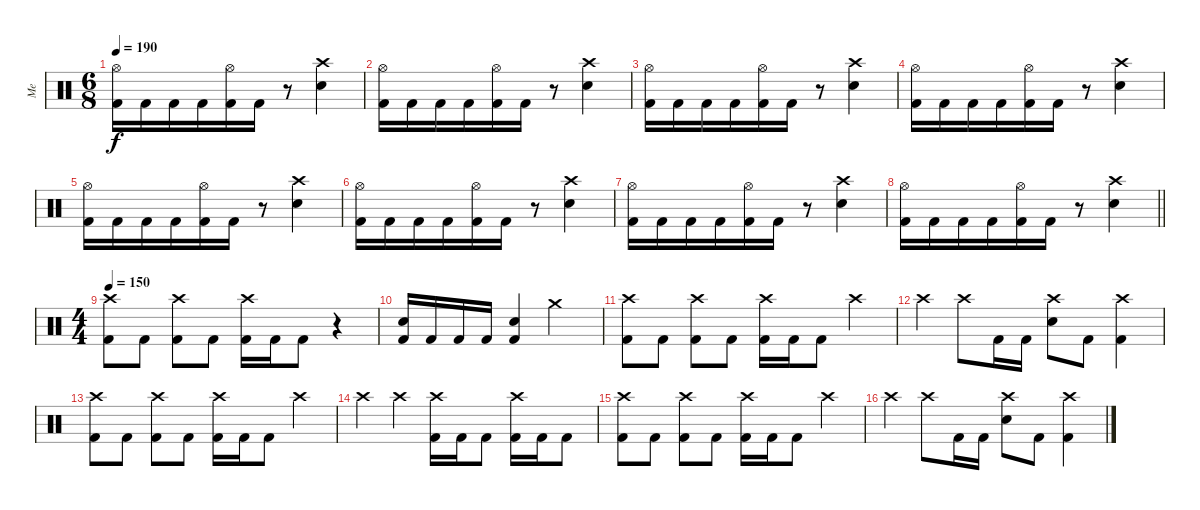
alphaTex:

\track ("Me" "Me") {instrument percussion}
\staff {score}
\articulation defaults
\ts (6 8)
\tempo 190
\clef neutral
\ks c
("Hi-Hat (open)" "Kick (hit) 2").16{dy f} "Kick (hit) 2".16 "Kick (hit) 2".16 "Kick (hit) 2".16 ("Hi-Hat (open)" "Kick (hit) 2").16 "Kick (hit) 2".16 r.8 ("Crash high (hit)" "Snare (hit) 2").4 |
("Hi-Hat (open)" "Kick (hit) 2").16 "Kick (hit) 2".16 "Kick (hit) 2".16 "Kick (hit) 2".16 ("Hi-Hat (open)" "Kick (hit) 2").16 "Kick (hit) 2".16 r.8 ("Crash high (hit)" "Snare (hit) 2").4 |
("Hi-Hat (open)" "Kick (hit) 2").16 "Kick (hit) 2".16 "Kick (hit) 2".16 "Kick (hit) 2".16 ("Hi-Hat (open)" "Kick (hit) 2").16 "Kick (hit) 2".16 r.8 ("Crash high (hit)" "Snare (hit) 2").4 |
("Hi-Hat (open)" "Kick (hit) 2").16 "Kick (hit) 2".16 "Kick (hit) 2".16 "Kick (hit) 2".16 ("Hi-Hat (open)" "Kick (hit) 2").16 "Kick (hit) 2".16 r.8 ("Crash high (hit)" "Snare (hit) 2").4 |
("Hi-Hat (open)" "Kick (hit) 2").16 "Kick (hit) 2".16 "Kick (hit) 2".16 "Kick (hit) 2".16 ("Hi-Hat (open)" "Kick (hit) 2").16 "Kick (hit) 2".16 r.8 ("Crash high (hit)" "Snare (hit) 2").4 |
("Hi-Hat (open)" "Kick (hit) 2").16 "Kick (hit) 2".16 "Kick (hit) 2".16 "Kick (hit) 2".16 ("Hi-Hat (open)" "Kick (hit) 2").16 "Kick (hit) 2".16 r.8 ("Crash high (hit)" "Snare (hit) 2").4 |
("Hi-Hat (open)" "Kick (hit) 2").16 "Kick (hit) 2".16 "Kick (hit) 2".16 "Kick (hit) 2".16 ("Hi-Hat (open)" "Kick (hit) 2").16 "Kick (hit) 2".16 r.8 ("Crash high (hit)" "Snare (hit) 2").4 |
\barLineRight lightlight
("Hi-Hat (open)" "Kick (hit) 2").16 "Kick (hit) 2".16 "Kick (hit) 2".16 "Kick (hit) 2".16 ("Hi-Hat (open)" "Kick (hit) 2").16 "Kick (hit) 2".16 r.8 ("Crash high (hit)" "Snare (hit) 2").4 |
\ts (4 4)
\tempo 150
("Crash high (hit)" "Kick (hit) 2").8 "Kick (hit) 2".8 ("Crash high (hit)" "Kick (hit) 2").8 "Kick (hit) 2".8 ("Crash high (hit)" "Kick (hit) 2").16 "Kick (hit) 2".16 "Kick (hit) 2".8 r.4 |
("Snare (hit) 2" "Kick (hit) 2").16 "Kick (hit) 2".16 "Kick (hit) 2".16 "Kick (hit) 2".16 ("Snare (hit) 2" "Kick (hit) 2").4 "Crash medium (hit)".2 |
("Crash high (hit)" "Kick (hit) 2").8 "Kick (hit) 2".8 ("Crash high (hit)" "Kick (hit) 2").8 "Kick (hit) 2".8 ("Crash high (hit)" "Kick (hit) 2").16 "Kick (hit) 2".16 "Kick (hit) 2".8 "Crash high (hit)".4 |
"Crash high (hit)".4 "Crash high (hit)".8 "Kick (hit) 2".16 "Kick (hit) 2".16 ("Crash high (hit)" "Snare (hit) 2").8 "Kick (hit) 2".8 ("Crash high (hit)" "Kick (hit) 2").4 |
("Crash high (hit)" "Kick (hit) 2").8 "Kick (hit) 2".8 ("Crash high (hit)" "Kick (hit) 2").8 "Kick (hit) 2".8 ("Crash high (hit)" "Kick (hit) 2").16 "Kick (hit) 2".16 "Kick (hit) 2".8 "Crash high (hit)".4 |
"Crash high (hit)".4 "Crash high (hit)".4 ("Crash high (hit)" "Kick (hit) 2").16 "Kick (hit) 2".16 "Kick (hit) 2".8 ("Crash high (hit)" "Kick (hit) 2").16 "Kick (hit) 2".16 "Kick (hit) 2".8 |
("Crash high (hit)" "Kick (hit) 2").8 "Kick (hit) 2".8 ("Crash high (hit)" "Kick (hit) 2").8 "Kick (hit) 2".8 ("Crash high (hit)" "Kick (hit) 2").16 "Kick (hit) 2".16 "Kick (hit) 2".8 "Crash high (hit)".4 |
"Crash high (hit)".4 "Crash high (hit)".8 "Kick (hit) 2".16 "Kick (hit) 2".16 ("Crash high (hit)" "Snare (hit) 2").8 "Kick (hit) 2".8 ("Crash high (hit)" "Kick (hit) 2").4
